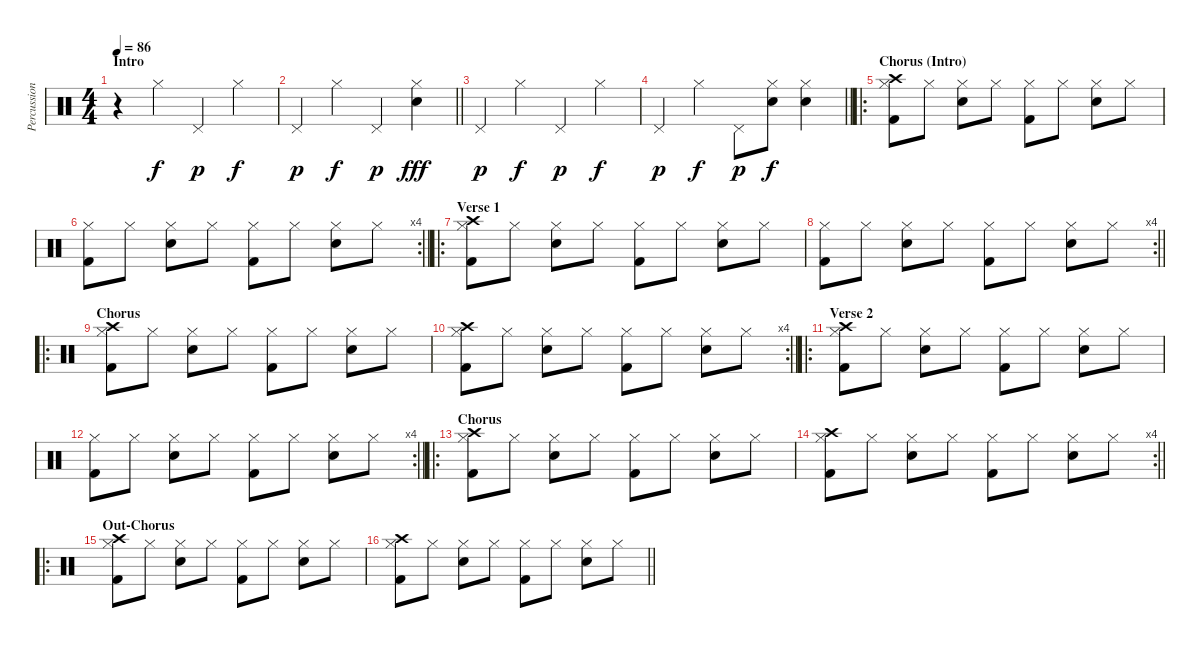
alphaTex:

\track ("Percussion" "Percussion") {instrument percussion}
\staff {score}
\articulation defaults
\ts (4 4)
\section ("" "Intro")
\tempo 86
\clef neutral
\ks c
r.4{dy f} "Hi-Hat (closed)".4 "Pedal Hi-Hat (hit)".4{dy p} "Hi-Hat (closed)".4{dy f} |
\barLineRight lightlight "Pedal Hi-Hat (hit)".4{dy p} "Hi-Hat (closed)".4{dy f} "Pedal Hi-Hat (hit)".4{dy p}
("Hi-Hat (closed)" "Snare (hit) 2").4{dy fff} |
"Pedal Hi-Hat (hit)".4{dy p} "Hi-Hat (closed)".4{dy f} "Pedal Hi-Hat (hit)".4{dy p} "Hi-Hat (closed)".4{dy f} |
\barLineRight lightlight "Pedal Hi-Hat (hit)".4{dy p} "Hi-Hat (closed)".4{dy f} "Pedal Hi-Hat (hit)".8{dy p}
("Hi-Hat (closed)" "Snare (hit) 2").8{dy f} ("Hi-Hat (closed)" "Snare (hit) 2").4 |
\ro
\section ("" "Chorus (Intro)")
("Crash high (hit)" "Hi-Hat (closed)" "Kick (hit) 2").8 "Hi-Hat (closed)".8 ("Snare (hit) 2" "Hi-Hat (closed)").8 "Hi-Hat (closed)".8 ("Hi-Hat (closed)" "Kick (hit) 2").8 "Hi-Hat (closed)".8 ("Hi-Hat (closed)" "Snare (hit) 2").8 "Hi-Hat (closed)".8 |
\rc 4
\barLineRight lightlight
("Hi-Hat (closed)" "Kick (hit) 2").8 "Hi-Hat (closed)".8 ("Snare (hit) 2" "Hi-Hat (closed)").8 "Hi-Hat (closed)".8 ("Hi-Hat (closed)" "Kick (hit) 2").8 "Hi-Hat (closed)".8 ("Hi-Hat (closed)" "Snare (hit) 2").8 "Hi-Hat (closed)".8 |
\ro
\section ("" "Verse 1")
("Crash high (hit)" "Hi-Hat (closed)" "Kick (hit) 2").8 "Hi-Hat (closed)".8 ("Snare (hit) 2" "Hi-Hat (closed)").8 "Hi-Hat (closed)".8 ("Hi-Hat (closed)" "Kick (hit) 2").8 "Hi-Hat (closed)".8 ("Hi-Hat (closed)" "Snare (hit) 2").8 "Hi-Hat (closed)".8 |
\rc 4
\barLineRight lightlight
("Hi-Hat (closed)" "Kick (hit) 2").8 "Hi-Hat (closed)".8 ("Snare (hit) 2" "Hi-Hat (closed)").8 "Hi-Hat (closed)".8 ("Hi-Hat (closed)" "Kick (hit) 2").8 "Hi-Hat (closed)".8 ("Hi-Hat (closed)" "Snare (hit) 2").8 "Hi-Hat (closed)".8 |
\ro
\section ("" "Chorus")
("Crash high (hit)" "Hi-Hat (closed)" "Kick (hit) 2").8 "Hi-Hat (closed)".8 ("Snare (hit) 2" "Hi-Hat (closed)").8 "Hi-Hat (closed)".8 ("Hi-Hat (closed)" "Kick (hit) 2").8 "Hi-Hat (closed)".8 ("Hi-Hat (closed)" "Snare (hit) 2").8 "Hi-Hat (closed)".8 |
\rc 4
\barLineRight lightlight
("Hi-Hat (closed)" "Crash high (hit)" "Kick (hit) 2").8 "Hi-Hat (closed)".8 ("Snare (hit) 2" "Hi-Hat (closed)").8 "Hi-Hat (closed)".8 ("Hi-Hat (closed)" "Kick (hit) 2").8 "Hi-Hat (closed)".8 ("Hi-Hat (closed)" "Snare (hit) 2").8 "Hi-Hat (closed)".8 |
\ro
\section ("" "Verse 2")
("Crash high (hit)" "Hi-Hat (closed)" "Kick (hit) 2").8 "Hi-Hat (closed)".8 ("Snare (hit) 2" "Hi-Hat (closed)").8 "Hi-Hat (closed)".8 ("Hi-Hat (closed)" "Kick (hit) 2").8 "Hi-Hat (closed)".8 ("Hi-Hat (closed)" "Snare (hit) 2").8 "Hi-Hat (closed)".8 |
\rc 4
\barLineRight lightlight
("Hi-Hat (closed)" "Kick (hit) 2").8 "Hi-Hat (closed)".8 ("Snare (hit) 2" "Hi-Hat (closed)").8 "Hi-Hat (closed)".8 ("Hi-Hat (closed)" "Kick (hit) 2").8 "Hi-Hat (closed)".8 ("Hi-Hat (closed)" "Snare (hit) 2").8 "Hi-Hat (closed)".8 |
\ro
\section ("" "Chorus")
("Crash high (hit)" "Hi-Hat (closed)" "Kick (hit) 2").8 "Hi-Hat (closed)".8 ("Snare (hit) 2" "Hi-Hat (closed)").8 "Hi-Hat (closed)".8 ("Hi-Hat (closed)" "Kick (hit) 2").8 "Hi-Hat (closed)".8 ("Hi-Hat (closed)" "Snare (hit) 2").8 "Hi-Hat (closed)".8 |
\rc 4
\barLineRight lightlight
("Hi-Hat (closed)" "Crash high (hit)" "Kick (hit) 2").8 "Hi-Hat (closed)".8 ("Snare (hit) 2" "Hi-Hat (closed)").8 "Hi-Hat (closed)".8 ("Hi-Hat (closed)" "Kick (hit) 2").8 "Hi-Hat (closed)".8 ("Hi-Hat (closed)" "Snare (hit) 2").8 "Hi-Hat (closed)".8 |
\ro
\section ("" "Out-Chorus")
("Crash high (hit)" "Hi-Hat (closed)" "Kick (hit) 2").8 "Hi-Hat (closed)".8 ("Snare (hit) 2" "Hi-Hat (closed)").8 "Hi-Hat (closed)".8 ("Hi-Hat (closed)" "Kick (hit) 2").8 "Hi-Hat (closed)".8 ("Hi-Hat (closed)" "Snare (hit) 2").8 "Hi-Hat (closed)".8 |
\barLineRight lightlight
("Hi-Hat (closed)" "Crash high (hit)" "Kick (hit) 2").8 "Hi-Hat (closed)".8 ("Snare (hit) 2" "Hi-Hat (closed)").8 "Hi-Hat (closed)".8 ("Hi-Hat (closed)" "Kick (hit) 2").8 "Hi-Hat (closed)".8 ("Hi-Hat (closed)" "Snare (hit) 2").8 "Hi-Hat (closed)".8
